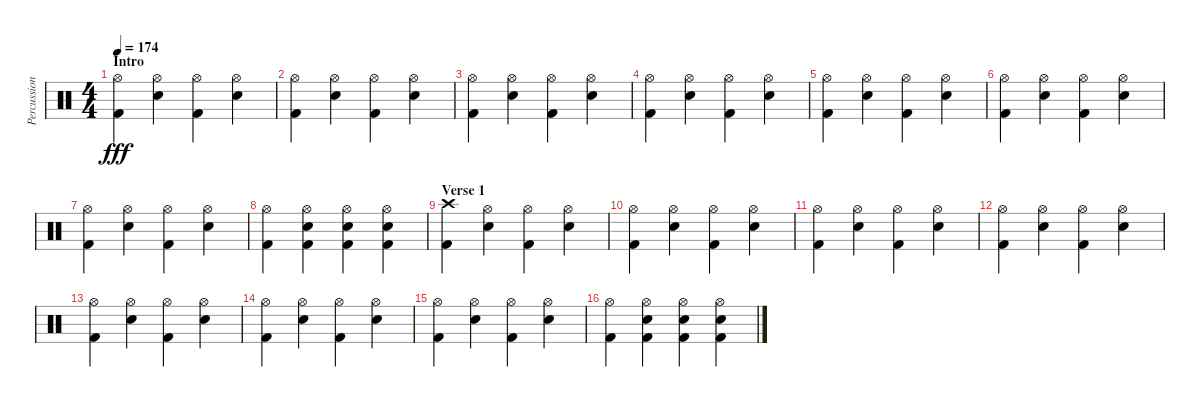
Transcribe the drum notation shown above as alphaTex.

\track ("Percussion" "Percussion") {instrument percussion}
\staff {score}
\articulation defaults
\ts (4 4)
\section ("" "Intro")
\tempo 174
\clef neutral
\ks c
("Hi-Hat (open)" "Kick (hit) 2").4{dy fff} ("Hi-Hat (open)" "Electric Snare (hit)").4 ("Hi-Hat (open)" "Kick (hit) 2").4 ("Hi-Hat (open)" "Electric Snare (hit)").4 |
("Hi-Hat (open)" "Kick (hit) 2").4 ("Hi-Hat (open)" "Electric Snare (hit)").4 ("Hi-Hat (open)" "Kick (hit) 2").4 ("Hi-Hat (open)" "Electric Snare (hit)").4 |
("Hi-Hat (open)" "Kick (hit) 2").4 ("Hi-Hat (open)" "Electric Snare (hit)").4 ("Hi-Hat (open)" "Kick (hit) 2").4 ("Hi-Hat (open)" "Electric Snare (hit)").4 |
("Hi-Hat (open)" "Kick (hit) 2").4 ("Hi-Hat (open)" "Electric Snare (hit)").4 ("Hi-Hat (open)" "Kick (hit) 2").4 ("Hi-Hat (open)" "Electric Snare (hit)").4 |
("Hi-Hat (open)" "Kick (hit) 2").4 ("Hi-Hat (open)" "Electric Snare (hit)").4 ("Hi-Hat (open)" "Kick (hit) 2").4 ("Hi-Hat (open)" "Electric Snare (hit)").4 |
("Hi-Hat (open)" "Kick (hit) 2").4 ("Hi-Hat (open)" "Electric Snare (hit)").4 ("Hi-Hat (open)" "Kick (hit) 2").4 ("Hi-Hat (open)" "Electric Snare (hit)").4 |
("Hi-Hat (open)" "Kick (hit) 2").4 ("Hi-Hat (open)" "Electric Snare (hit)").4 ("Hi-Hat (open)" "Kick (hit) 2").4 ("Hi-Hat (open)" "Electric Snare (hit)").4 |
("Hi-Hat (open)" "Kick (hit) 2").4 ("Hi-Hat (open)" "Electric Snare (hit)" "Kick (hit) 2").4 ("Hi-Hat (open)" "Electric Snare (hit)" "Kick (hit) 2").4 ("Hi-Hat (open)" "Electric Snare (hit)" "Kick (hit) 2").4 |
\section ("" "Verse 1")
("Crash high (hit)" "Kick (hit) 2").4 ("Hi-Hat (open)" "Electric Snare (hit)").4 ("Hi-Hat (open)" "Kick (hit) 2").4 ("Hi-Hat (open)" "Electric Snare (hit)").4 |
("Hi-Hat (open)" "Kick (hit) 2").4 ("Hi-Hat (open)" "Electric Snare (hit)").4 ("Hi-Hat (open)" "Kick (hit) 2").4 ("Hi-Hat (open)" "Electric Snare (hit)").4 |
("Hi-Hat (open)" "Kick (hit) 2").4 ("Hi-Hat (open)" "Electric Snare (hit)").4 ("Hi-Hat (open)" "Kick (hit) 2").4 ("Hi-Hat (open)" "Electric Snare (hit)").4 |
("Hi-Hat (open)" "Kick (hit) 2").4 ("Hi-Hat (open)" "Electric Snare (hit)").4 ("Hi-Hat (open)" "Kick (hit) 2").4 ("Hi-Hat (open)" "Electric Snare (hit)").4 |
("Hi-Hat (open)" "Kick (hit) 2").4 ("Hi-Hat (open)" "Electric Snare (hit)").4 ("Hi-Hat (open)" "Kick (hit) 2").4 ("Hi-Hat (open)" "Electric Snare (hit)").4 |
("Hi-Hat (open)" "Kick (hit) 2").4 ("Hi-Hat (open)" "Electric Snare (hit)").4 ("Hi-Hat (open)" "Kick (hit) 2").4 ("Hi-Hat (open)" "Electric Snare (hit)").4 |
("Hi-Hat (open)" "Kick (hit) 2").4 ("Hi-Hat (open)" "Electric Snare (hit)").4 ("Hi-Hat (open)" "Kick (hit) 2").4 ("Hi-Hat (open)" "Electric Snare (hit)").4 |
("Hi-Hat (open)" "Kick (hit) 2").4 ("Hi-Hat (open)" "Electric Snare (hit)" "Kick (hit) 2").4 ("Hi-Hat (open)" "Electric Snare (hit)" "Kick (hit) 2").4 ("Hi-Hat (open)" "Electric Snare (hit)" "Kick (hit) 2").4
